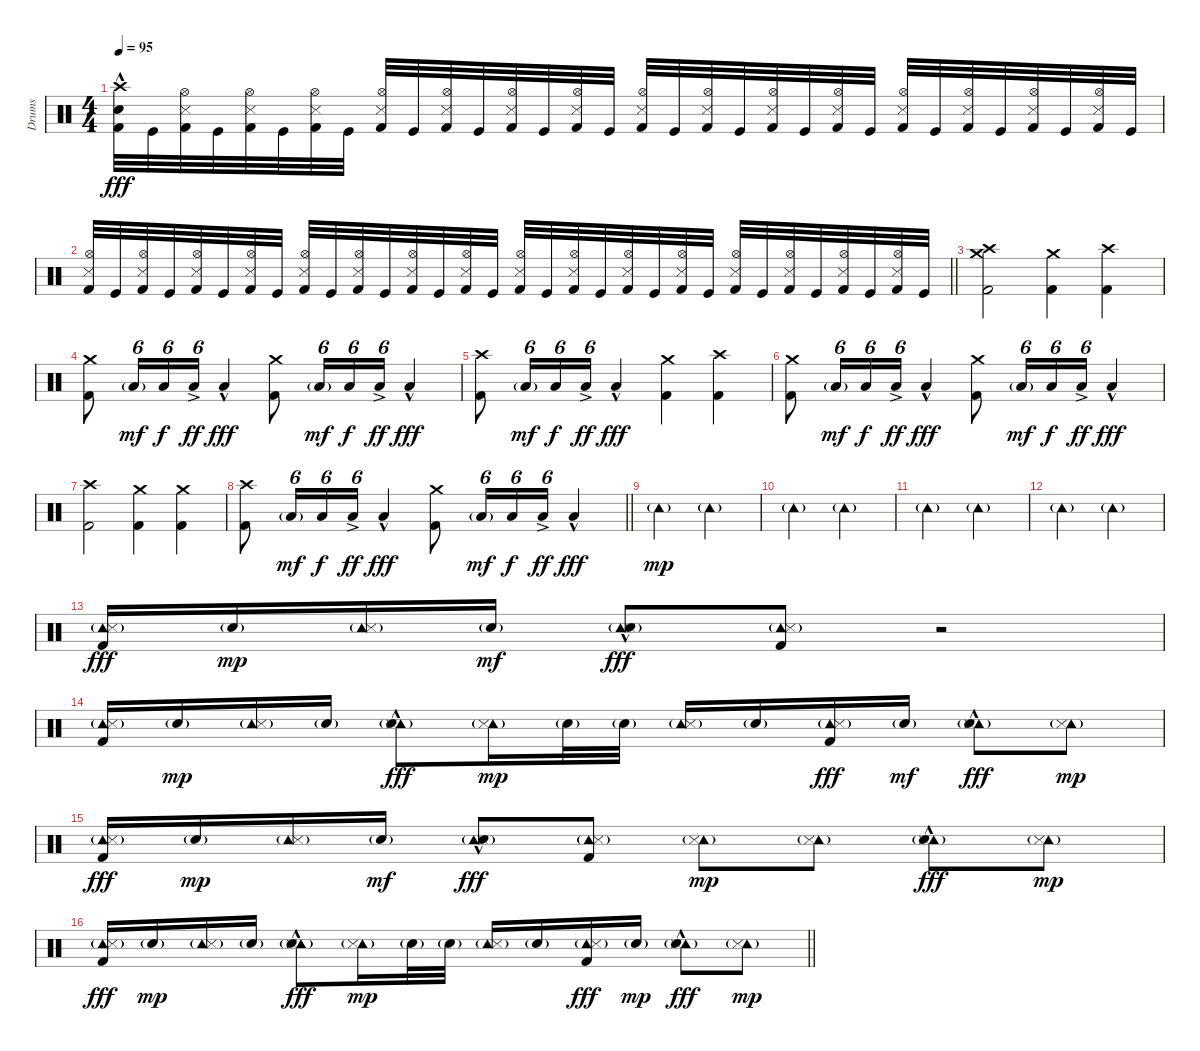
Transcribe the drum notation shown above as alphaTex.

\track ("Drums" "Drums") {instrument percussion}
\staff {score}
\articulation defaults
\ts (4 4)
\tempo 95
\clef neutral
\ks c
("Crash high (hit)" "Electric Snare (hit)"{hac} "Kick (hit) 2").32{dy fff} "Kick (hit)".32 ("Hi-Hat (open)" "Snare (side stick) 3" "Kick (hit) 2").32 "Kick (hit)".32 ("Hi-Hat (open)" "Snare (side stick) 3" "Kick (hit) 2").32 "Kick (hit)".32 ("Hi-Hat (open)" "Snare (side stick) 3" "Kick (hit) 2").32 "Kick (hit)".32 ("Hi-Hat (open)" "Snare (side stick) 3" "Kick (hit) 2").32 "Kick (hit)".32 ("Hi-Hat (open)" "Snare (side stick) 3" "Kick (hit) 2").32 "Kick (hit)".32 ("Hi-Hat (open)" "Snare (side stick) 3" "Kick (hit) 2").32 "Kick (hit)".32 ("Hi-Hat (open)" "Snare (side stick) 3" "Kick (hit) 2").32 "Kick (hit)".32 ("Hi-Hat (open)" "Snare (side stick) 3" "Kick (hit) 2").32 "Kick (hit)".32 ("Hi-Hat (open)" "Snare (side stick) 3" "Kick (hit) 2").32 "Kick (hit)".32 ("Hi-Hat (open)" "Snare (side stick) 3" "Kick (hit) 2").32 "Kick (hit)".32 ("Hi-Hat (open)" "Snare (side stick) 3" "Kick (hit) 2").32 "Kick (hit)".32 ("Hi-Hat (open)" "Snare (side stick) 3" "Kick (hit) 2").32 "Kick (hit)".32 ("Hi-Hat (open)" "Snare (side stick) 3" "Kick (hit) 2").32 "Kick (hit)".32 ("Hi-Hat (open)" "Snare (side stick) 3" "Kick (hit) 2").32 "Kick (hit)".32 ("Hi-Hat (open)" "Snare (side stick) 3" "Kick (hit) 2").32 "Kick (hit)".32 |
\barLineRight lightlight
("Hi-Hat (open)" "Snare (side stick) 3" "Kick (hit) 2").32 "Kick (hit)".32 ("Hi-Hat (open)" "Snare (side stick) 3" "Kick (hit) 2").32 "Kick (hit)".32 ("Hi-Hat (open)" "Snare (side stick) 3" "Kick (hit) 2").32 "Kick (hit)".32 ("Hi-Hat (open)" "Snare (side stick) 3" "Kick (hit) 2").32 "Kick (hit)".32 ("Hi-Hat (open)" "Snare (side stick) 3" "Kick (hit) 2").32 "Kick (hit)".32 ("Hi-Hat (open)" "Snare (side stick) 3" "Kick (hit) 2").32 "Kick (hit)".32 ("Hi-Hat (open)" "Snare (side stick) 3" "Kick (hit) 2").32 "Kick (hit)".32 ("Hi-Hat (open)" "Snare (side stick) 3" "Kick (hit) 2").32 "Kick (hit)".32 ("Hi-Hat (open)" "Snare (side stick) 3" "Kick (hit) 2").32 "Kick (hit)".32 ("Hi-Hat (open)" "Snare (side stick) 3" "Kick (hit) 2").32 "Kick (hit)".32 ("Hi-Hat (open)" "Snare (side stick) 3" "Kick (hit) 2").32 "Kick (hit)".32 ("Hi-Hat (open)" "Snare (side stick) 3" "Kick (hit) 2").32 "Kick (hit)".32 ("Hi-Hat (open)" "Snare (side stick) 3" "Kick (hit) 2").32 "Kick (hit)".32 ("Hi-Hat (open)" "Snare (side stick) 3" "Kick (hit) 2").32 "Kick (hit)".32 ("Hi-Hat (open)" "Snare (side stick) 3" "Kick (hit) 2").32 "Kick (hit)".32 ("Hi-Hat (open)" "Snare (side stick) 3" "Kick (hit) 2").32 "Kick (hit)".32 |
("Crash medium (hit)" "Crash high (hit)" "Kick (hit) 2").2 ("Crash medium (hit)" "Kick (hit) 2").4 ("Crash high (hit)" "Kick (hit) 2").4 |
("Crash medium (hit)" "Kick (hit) 2").8 "Low Floor Tom (hit)"{g}.16{tu (6 4) dy mf} "Low Floor Tom (hit)".16{tu (6 4) dy f} "Low Floor Tom (hit)"{ac}.16{tu (6 4) dy ff} "Low Floor Tom (hit)"{hac}.4{dy fff} ("Crash medium (hit)" "Kick (hit) 2").8 "Low Floor Tom (hit)"{g}.16{tu (6 4) dy mf} "Low Floor Tom (hit)".16{tu (6 4) dy f} "Low Floor Tom (hit)"{ac}.16{tu (6 4) dy ff} "Low Floor Tom (hit)"{hac}.4{dy fff} |
("Crash high (hit)" "Kick (hit) 2").8 "Low Floor Tom (hit)"{g}.16{tu (6 4) dy mf} "Low Floor Tom (hit)".16{tu (6 4) dy f} "Low Floor Tom (hit)"{ac}.16{tu (6 4) dy ff} "Low Floor Tom (hit)"{hac}.4{dy fff} ("Crash medium (hit)" "Kick (hit) 2").4 ("Crash high (hit)" "Kick (hit) 2").4 |
("Crash medium (hit)" "Kick (hit) 2").8 "Low Floor Tom (hit)"{g}.16{tu (6 4) dy mf} "Low Floor Tom (hit)".16{tu (6 4) dy f} "Low Floor Tom (hit)"{ac}.16{tu (6 4) dy ff} "Low Floor Tom (hit)"{hac}.4{dy fff} ("Crash medium (hit)" "Kick (hit) 2").8 "Low Floor Tom (hit)"{g}.16{tu (6 4) dy mf} "Low Floor Tom (hit)".16{tu (6 4) dy f} "Low Floor Tom (hit)"{ac}.16{tu (6 4) dy ff} "Low Floor Tom (hit)"{hac}.4{dy fff} |
("Crash high (hit)" "Kick (hit) 2").2 ("Crash medium (hit)" "Kick (hit) 2").4 ("Crash medium (hit)" "Kick (hit) 2").4 |
\barLineRight lightlight
("Crash high (hit)" "Kick (hit) 2").8 "Low Floor Tom (hit)"{g}.16{tu (6 4) dy mf} "Low Floor Tom (hit)".16{tu (6 4) dy f} "Low Floor Tom (hit)"{ac}.16{tu (6 4) dy ff} "Low Floor Tom (hit)"{hac}.4{dy fff} ("Crash medium (hit)" "Kick (hit) 2").8 "Low Floor Tom (hit)"{g}.16{tu (6 4) dy mf} "Low Floor Tom (hit)".16{tu (6 4) dy f} "Low Floor Tom (hit)"{ac}.16{tu (6 4) dy ff} "Low Floor Tom (hit)"{hac}.4{dy fff} |
"Tambourine (hit)"{g}.2{dy mp volume 7} "Tambourine (hit)"{g}.2 |
"Tambourine (hit)"{g}.2 "Tambourine (hit)"{g}.2 |
"Tambourine (hit)"{g}.2 "Tambourine (hit)"{g}.2 |
"Tambourine (hit)"{g}.2 "Tambourine (hit)"{g}.2 |
("Tambourine (hit)"{g} "Metronome (hit)" "Kick (hit) 2").16{dy fff} "Electric Snare (hit)"{g}.16{dy mp} ("Tambourine (hit)"{g} "Metronome (hit)").16 "Electric Snare (hit)"{g}.16{dy mf} ("Tambourine (hit)"{g} "Metronome (hit)" "Electric Snare (hit)"{hac}).8{dy fff} ("Tambourine (hit)"{g} "Metronome (hit)" "Kick (hit) 2").8 r.2 |
("Tambourine (hit)"{g} "Metronome (hit)" "Kick (hit) 2").16 "Electric Snare (hit)"{g}.16{dy mp} ("Tambourine (hit)"{g} "Metronome (hit)").16 "Electric Snare (hit)"{g}.16 ("Tambourine (hit)"{g} "Metronome (hit)" "Electric Snare (hit)"{hac}).8{dy fff} ("Tambourine (hit)"{g} "Metronome (hit)").16{dy mp} "Electric Snare (hit)"{g}.32 "Electric Snare (hit)"{g}.32 ("Tambourine (hit)"{g} "Metronome (hit)").16 "Electric Snare (hit)"{g}.16 ("Tambourine (hit)"{g} "Metronome (hit)" "Kick (hit) 2").16{dy fff} "Electric Snare (hit)"{g}.16{dy mf} ("Tambourine (hit)"{g} "Metronome (hit)" "Electric Snare (hit)"{hac}).8{dy fff} ("Tambourine (hit)"{g} "Metronome (hit)").8{dy mp} |
("Tambourine (hit)"{g} "Metronome (hit)" "Kick (hit) 2").16{dy fff} "Electric Snare (hit)"{g}.16{dy mp} ("Tambourine (hit)"{g} "Metronome (hit)").16 "Electric Snare (hit)"{g}.16{dy mf} ("Tambourine (hit)"{g} "Metronome (hit)" "Electric Snare (hit)"{hac}).8{dy fff} ("Tambourine (hit)"{g} "Metronome (hit)" "Kick (hit) 2").8 ("Tambourine (hit)"{g} "Metronome (hit)").8{dy mp} ("Tambourine (hit)"{g} "Metronome (hit)").8 ("Tambourine (hit)"{g} "Metronome (hit)" "Electric Snare (hit)"{hac}).8{dy fff} ("Tambourine (hit)"{g} "Metronome (hit)").8{dy mp} |
\barLineRight lightlight
("Tambourine (hit)"{g} "Metronome (hit)" "Kick (hit) 2").16{dy fff} "Electric Snare (hit)"{g}.16{dy mp} ("Tambourine (hit)"{g} "Metronome (hit)").16 "Electric Snare (hit)"{g}.16 ("Tambourine (hit)"{g} "Metronome (hit)" "Electric Snare (hit)"{hac}).8{dy fff} ("Tambourine (hit)"{g} "Metronome (hit)").16{dy mp} "Electric Snare (hit)"{g}.32 "Electric Snare (hit)"{g}.32 ("Tambourine (hit)"{g} "Metronome (hit)").16 "Electric Snare (hit)"{g}.16 ("Tambourine (hit)"{g} "Metronome (hit)" "Kick (hit) 2").16{dy fff} "Electric Snare (hit)"{g}.16{dy mp} ("Tambourine (hit)"{g} "Metronome (hit)" "Electric Snare (hit)"{hac}).8{dy fff} ("Tambourine (hit)"{g} "Metronome (hit)").8{dy mp}
